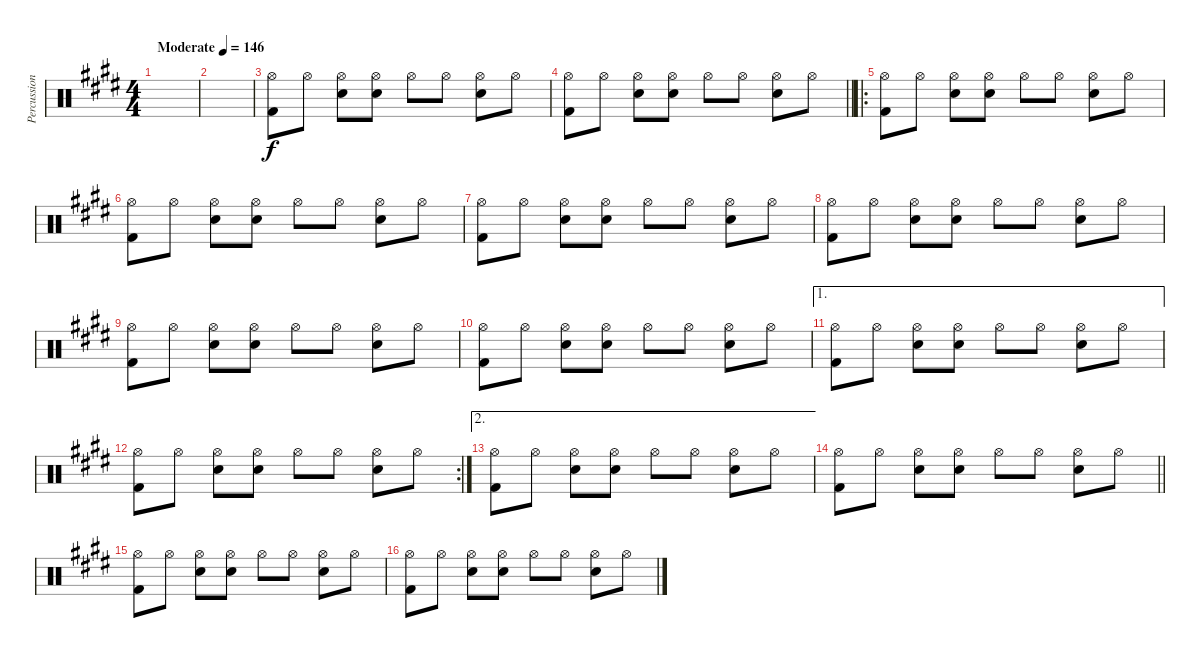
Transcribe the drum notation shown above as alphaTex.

\track ("Percussion" "Percussion") {instrument percussion}
\staff {score}
\articulation defaults
\ts (4 4)
\tempo (146 "Moderate")
\clef neutral
\ks e
|
|
("Hi-Hat (open)" "Kick (hit) 2").8 "Hi-Hat (open)".8 ("Hi-Hat (open)" "Snare (hit) 2").8 ("Hi-Hat (open)" "Snare (hit) 2").8 "Hi-Hat (open)".8 "Hi-Hat (open)".8 ("Hi-Hat (open)" "Snare (hit) 2").8 "Hi-Hat (open)".8 |
\barLineRight lightlight
("Hi-Hat (open)" "Kick (hit) 2").8 "Hi-Hat (open)".8 ("Hi-Hat (open)" "Snare (hit) 2").8 ("Hi-Hat (open)" "Snare (hit) 2").8 "Hi-Hat (open)".8 "Hi-Hat (open)".8 ("Hi-Hat (open)" "Snare (hit) 2").8 "Hi-Hat (open)".8 |
\ro
("Hi-Hat (open)" "Kick (hit) 2").8 "Hi-Hat (open)".8 ("Hi-Hat (open)" "Snare (hit) 2").8 ("Hi-Hat (open)" "Snare (hit) 2").8 "Hi-Hat (open)".8 "Hi-Hat (open)".8 ("Hi-Hat (open)" "Snare (hit) 2").8 "Hi-Hat (open)".8 |
("Hi-Hat (open)" "Kick (hit) 2").8 "Hi-Hat (open)".8 ("Hi-Hat (open)" "Snare (hit) 2").8 ("Hi-Hat (open)" "Snare (hit) 2").8 "Hi-Hat (open)".8 "Hi-Hat (open)".8 ("Hi-Hat (open)" "Snare (hit) 2").8 "Hi-Hat (open)".8 |
("Hi-Hat (open)" "Kick (hit) 2").8 "Hi-Hat (open)".8 ("Hi-Hat (open)" "Snare (hit) 2").8 ("Hi-Hat (open)" "Snare (hit) 2").8 "Hi-Hat (open)".8 "Hi-Hat (open)".8 ("Hi-Hat (open)" "Snare (hit) 2").8 "Hi-Hat (open)".8 |
("Hi-Hat (open)" "Kick (hit) 2").8 "Hi-Hat (open)".8 ("Hi-Hat (open)" "Snare (hit) 2").8 ("Hi-Hat (open)" "Snare (hit) 2").8 "Hi-Hat (open)".8 "Hi-Hat (open)".8 ("Hi-Hat (open)" "Snare (hit) 2").8 "Hi-Hat (open)".8 |
("Hi-Hat (open)" "Kick (hit) 2").8 "Hi-Hat (open)".8 ("Hi-Hat (open)" "Snare (hit) 2").8 ("Hi-Hat (open)" "Snare (hit) 2").8 "Hi-Hat (open)".8 "Hi-Hat (open)".8 ("Hi-Hat (open)" "Snare (hit) 2").8 "Hi-Hat (open)".8 |
("Hi-Hat (open)" "Kick (hit) 2").8 "Hi-Hat (open)".8 ("Hi-Hat (open)" "Snare (hit) 2").8 ("Hi-Hat (open)" "Snare (hit) 2").8 "Hi-Hat (open)".8 "Hi-Hat (open)".8 ("Hi-Hat (open)" "Snare (hit) 2").8 "Hi-Hat (open)".8 |
\ae 1
("Hi-Hat (open)" "Kick (hit) 2").8 "Hi-Hat (open)".8 ("Hi-Hat (open)" "Snare (hit) 2").8 ("Hi-Hat (open)" "Snare (hit) 2").8 "Hi-Hat (open)".8 "Hi-Hat (open)".8 ("Hi-Hat (open)" "Snare (hit) 2").8 "Hi-Hat (open)".8 |
\rc 2
("Hi-Hat (open)" "Kick (hit) 2").8 "Hi-Hat (open)".8 ("Hi-Hat (open)" "Snare (hit) 2").8 ("Hi-Hat (open)" "Snare (hit) 2").8 "Hi-Hat (open)".8 "Hi-Hat (open)".8 ("Hi-Hat (open)" "Snare (hit) 2").8 "Hi-Hat (open)".8 |
\ae 2
("Hi-Hat (open)" "Kick (hit) 2").8 "Hi-Hat (open)".8 ("Hi-Hat (open)" "Snare (hit) 2").8 ("Hi-Hat (open)" "Snare (hit) 2").8 "Hi-Hat (open)".8 "Hi-Hat (open)".8 ("Hi-Hat (open)" "Snare (hit) 2").8 "Hi-Hat (open)".8 |
\barLineRight lightlight
("Hi-Hat (open)" "Kick (hit) 2").8 "Hi-Hat (open)".8 ("Hi-Hat (open)" "Snare (hit) 2").8 ("Hi-Hat (open)" "Snare (hit) 2").8 "Hi-Hat (open)".8 "Hi-Hat (open)".8 ("Hi-Hat (open)" "Snare (hit) 2").8 "Hi-Hat (open)".8 |
("Hi-Hat (open)" "Kick (hit) 2").8 "Hi-Hat (open)".8 ("Hi-Hat (open)" "Snare (hit) 2").8 ("Hi-Hat (open)" "Snare (hit) 2").8 "Hi-Hat (open)".8 "Hi-Hat (open)".8 ("Hi-Hat (open)" "Snare (hit) 2").8 "Hi-Hat (open)".8 |
("Hi-Hat (open)" "Kick (hit) 2").8 "Hi-Hat (open)".8 ("Hi-Hat (open)" "Snare (hit) 2").8 ("Hi-Hat (open)" "Snare (hit) 2").8 "Hi-Hat (open)".8 "Hi-Hat (open)".8 ("Hi-Hat (open)" "Snare (hit) 2").8 "Hi-Hat (open)".8
